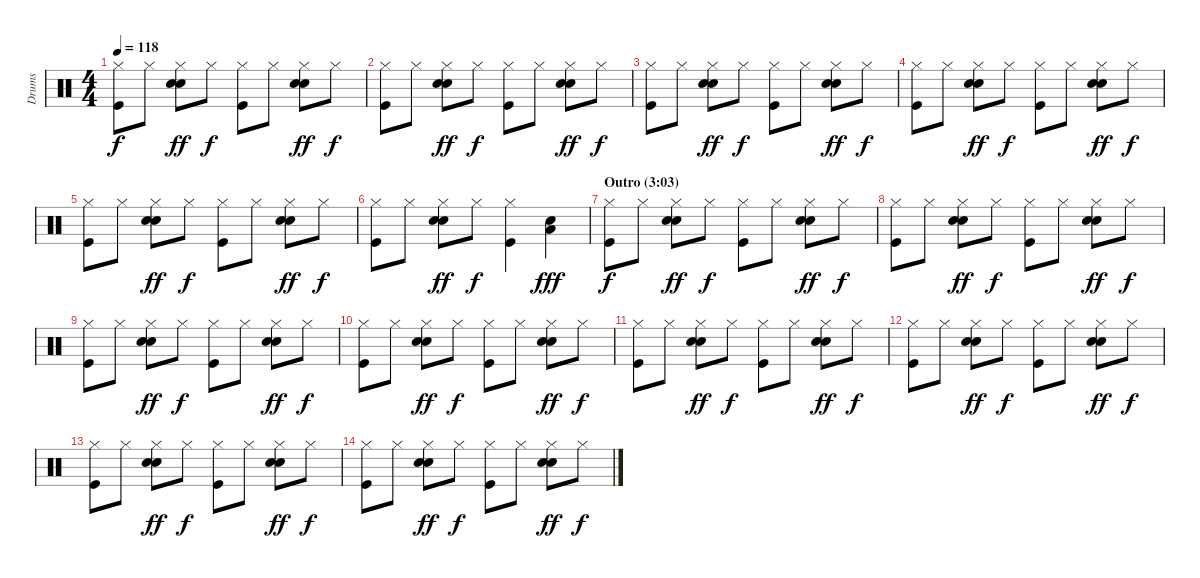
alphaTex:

\track ("Drums" "Drums") {instrument percussion}
\staff {score}
\articulation defaults
\ts (4 4)
\tempo 118
\clef neutral
\ks c
("Hi-Hat (closed)" "Kick (hit)").8{dy f} "Hi-Hat (closed)".8 ("Hi-Hat (closed)" "Electric Snare (hit)" "Snare (hit) 2").8{dy ff} "Hi-Hat (closed)".8{dy f} ("Hi-Hat (closed)" "Kick (hit)").8 "Hi-Hat (closed)".8 ("Hi-Hat (closed)" "Electric Snare (hit)" "Snare (hit) 2").8{dy ff} "Hi-Hat (closed)".8{dy f} |
("Hi-Hat (closed)" "Kick (hit)").8 "Hi-Hat (closed)".8 ("Hi-Hat (closed)" "Electric Snare (hit)" "Snare (hit) 2").8{dy ff} "Hi-Hat (closed)".8{dy f} ("Hi-Hat (closed)" "Kick (hit)").8 "Hi-Hat (closed)".8 ("Hi-Hat (closed)" "Electric Snare (hit)" "Snare (hit) 2").8{dy ff} "Hi-Hat (closed)".8{dy f} |
("Hi-Hat (closed)" "Kick (hit)").8 "Hi-Hat (closed)".8 ("Hi-Hat (closed)" "Electric Snare (hit)" "Snare (hit) 2").8{dy ff} "Hi-Hat (closed)".8{dy f} ("Hi-Hat (closed)" "Kick (hit)").8 "Hi-Hat (closed)".8 ("Hi-Hat (closed)" "Electric Snare (hit)" "Snare (hit) 2").8{dy ff} "Hi-Hat (closed)".8{dy f} |
("Hi-Hat (closed)" "Kick (hit)").8 "Hi-Hat (closed)".8 ("Hi-Hat (closed)" "Electric Snare (hit)" "Snare (hit) 2").8{dy ff} "Hi-Hat (closed)".8{dy f} ("Hi-Hat (closed)" "Kick (hit)").8 "Hi-Hat (closed)".8 ("Hi-Hat (closed)" "Electric Snare (hit)" "Snare (hit) 2").8{dy ff} "Hi-Hat (closed)".8{dy f} |
("Hi-Hat (closed)" "Kick (hit)").8 "Hi-Hat (closed)".8 ("Hi-Hat (closed)" "Electric Snare (hit)" "Snare (hit) 2").8{dy ff} "Hi-Hat (closed)".8{dy f} ("Hi-Hat (closed)" "Kick (hit)").8 "Hi-Hat (closed)".8 ("Hi-Hat (closed)" "Electric Snare (hit)" "Snare (hit) 2").8{dy ff} "Hi-Hat (closed)".8{dy f} |
("Hi-Hat (closed)" "Kick (hit)").8 "Hi-Hat (closed)".8 ("Hi-Hat (closed)" "Electric Snare (hit)" "Snare (hit) 2").8{dy ff} "Hi-Hat (closed)".8{dy f} ("Hi-Hat (closed)" "Kick (hit)").4 ("Electric Snare (hit)" "Low Floor Tom (hit)").4{dy fff} |
\section ("" "Outro (3:03)")
("Hi-Hat (closed)" "Kick (hit)").8{dy f} "Hi-Hat (closed)".8 ("Hi-Hat (closed)" "Electric Snare (hit)" "Snare (hit) 2").8{dy ff} "Hi-Hat (closed)".8{dy f} ("Hi-Hat (closed)" "Kick (hit)").8 "Hi-Hat (closed)".8 ("Hi-Hat (closed)" "Electric Snare (hit)" "Snare (hit) 2").8{dy ff} "Hi-Hat (closed)".8{dy f} |
("Hi-Hat (closed)" "Kick (hit)").8 "Hi-Hat (closed)".8 ("Hi-Hat (closed)" "Electric Snare (hit)" "Snare (hit) 2").8{dy ff} "Hi-Hat (closed)".8{dy f} ("Hi-Hat (closed)" "Kick (hit)").8 "Hi-Hat (closed)".8 ("Hi-Hat (closed)" "Electric Snare (hit)" "Snare (hit) 2").8{dy ff} "Hi-Hat (closed)".8{dy f} |
("Hi-Hat (closed)" "Kick (hit)").8 "Hi-Hat (closed)".8 ("Hi-Hat (closed)" "Electric Snare (hit)" "Snare (hit) 2").8{dy ff} "Hi-Hat (closed)".8{dy f} ("Hi-Hat (closed)" "Kick (hit)").8 "Hi-Hat (closed)".8 ("Hi-Hat (closed)" "Electric Snare (hit)" "Snare (hit) 2").8{dy ff} "Hi-Hat (closed)".8{dy f} |
("Hi-Hat (closed)" "Kick (hit)").8 "Hi-Hat (closed)".8 ("Hi-Hat (closed)" "Electric Snare (hit)" "Snare (hit) 2").8{dy ff} "Hi-Hat (closed)".8{dy f} ("Hi-Hat (closed)" "Kick (hit)").8 "Hi-Hat (closed)".8 ("Hi-Hat (closed)" "Electric Snare (hit)" "Snare (hit) 2").8{dy ff} "Hi-Hat (closed)".8{dy f} |
("Hi-Hat (closed)" "Kick (hit)").8{volume 0} "Hi-Hat (closed)".8 ("Hi-Hat (closed)" "Electric Snare (hit)" "Snare (hit) 2").8{dy ff} "Hi-Hat (closed)".8{dy f} ("Hi-Hat (closed)" "Kick (hit)").8 "Hi-Hat (closed)".8 ("Hi-Hat (closed)" "Electric Snare (hit)" "Snare (hit) 2").8{dy ff} "Hi-Hat (closed)".8{dy f} |
("Hi-Hat (closed)" "Kick (hit)").8 "Hi-Hat (closed)".8 ("Hi-Hat (closed)" "Electric Snare (hit)" "Snare (hit) 2").8{dy ff} "Hi-Hat (closed)".8{dy f} ("Hi-Hat (closed)" "Kick (hit)").8 "Hi-Hat (closed)".8 ("Hi-Hat (closed)" "Electric Snare (hit)" "Snare (hit) 2").8{dy ff} "Hi-Hat (closed)".8{dy f} |
("Hi-Hat (closed)" "Kick (hit)").8 "Hi-Hat (closed)".8 ("Hi-Hat (closed)" "Electric Snare (hit)" "Snare (hit) 2").8{dy ff} "Hi-Hat (closed)".8{dy f} ("Hi-Hat (closed)" "Kick (hit)").8 "Hi-Hat (closed)".8 ("Hi-Hat (closed)" "Electric Snare (hit)" "Snare (hit) 2").8{dy ff} "Hi-Hat (closed)".8{dy f} |
("Hi-Hat (closed)" "Kick (hit)").8 "Hi-Hat (closed)".8 ("Hi-Hat (closed)" "Electric Snare (hit)" "Snare (hit) 2").8{dy ff} "Hi-Hat (closed)".8{dy f} ("Hi-Hat (closed)" "Kick (hit)").8 "Hi-Hat (closed)".8 ("Hi-Hat (closed)" "Electric Snare (hit)" "Snare (hit) 2").8{dy ff} "Hi-Hat (closed)".8{dy f}
